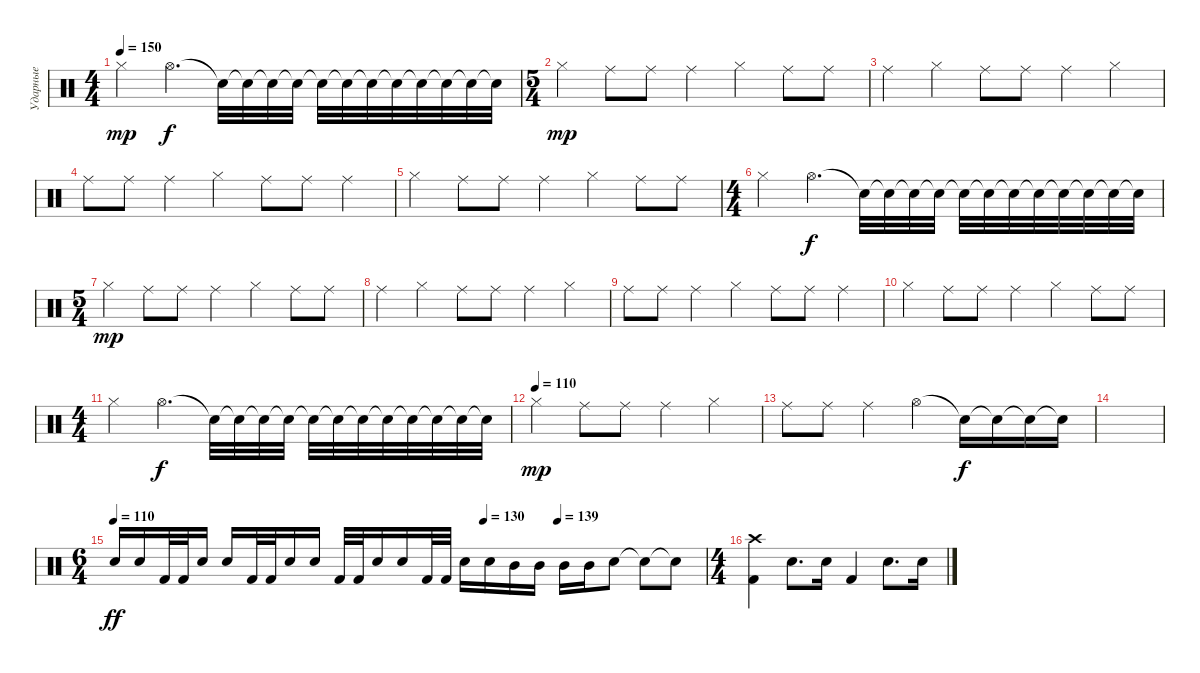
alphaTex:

\track ("Ударные" "Ударные") {instrument percussion}
\staff {score}
\articulation defaults
\ts (4 4)
\tempo 150
\clef neutral
\ks c "Hi-Hat (closed)".4{dy mp} "Hi-Hat (open)".4{d dy f} "Snare (hit)"{t}.32 "Snare (hit)"{t}.32 "Snare (hit)"{t}.32 "Snare (hit)"{t}.32 "Snare (hit)"{t}.32 "Snare (hit)"{t}.32 "Snare (hit)"{t}.32 "Snare (hit)"{t}.32 "Snare (hit)"{t}.32 "Snare (hit)"{t}.32 "Snare (hit)"{t}.32 "Snare (hit)"{t}.32
|
\ts (5 4)
"Hi-Hat (closed)".4{dy mp} "Ride (middle)".8 "Ride (middle)".8 "Ride (middle)".4 "Hi-Hat (closed)".4 "Ride (middle)".8 "Ride (middle)".8 |
"Ride (middle)".4 "Hi-Hat (closed)".4 "Ride (middle)".8 "Ride (middle)".8 "Ride (middle)".4 "Hi-Hat (closed)".4 |
"Ride (middle)".8 "Ride (middle)".8 "Ride (middle)".4 "Hi-Hat (closed)".4 "Ride (middle)".8 "Ride (middle)".8 "Ride (middle)".4 |
"Hi-Hat (closed)".4 "Ride (middle)".8 "Ride (middle)".8 "Ride (middle)".4 "Hi-Hat (closed)".4 "Ride (middle)".8 "Ride (middle)".8 |
\ts (4 4)
"Hi-Hat (closed)".4 "Hi-Hat (open)".4{d dy f} "Snare (hit)"{t}.32 "Snare (hit)"{t}.32 "Snare (hit)"{t}.32 "Snare (hit)"{t}.32 "Snare (hit)"{t}.32 "Snare (hit)"{t}.32 "Snare (hit)"{t}.32 "Snare (hit)"{t}.32 "Snare (hit)"{t}.32 "Snare (hit)"{t}.32 "Snare (hit)"{t}.32 "Snare (hit)"{t}.32 |
\ts (5 4)
"Hi-Hat (closed)".4{dy mp} "Ride (middle)".8 "Ride (middle)".8 "Ride (middle)".4 "Hi-Hat (closed)".4 "Ride (middle)".8 "Ride (middle)".8 |
"Ride (middle)".4 "Hi-Hat (closed)".4 "Ride (middle)".8 "Ride (middle)".8 "Ride (middle)".4 "Hi-Hat (closed)".4 |
"Ride (middle)".8 "Ride (middle)".8 "Ride (middle)".4 "Hi-Hat (closed)".4 "Ride (middle)".8 "Ride (middle)".8 "Ride (middle)".4 |
"Hi-Hat (closed)".4 "Ride (middle)".8 "Ride (middle)".8 "Ride (middle)".4 "Hi-Hat (closed)".4 "Ride (middle)".8 "Ride (middle)".8 |
\ts (4 4)
"Hi-Hat (closed)".4 "Hi-Hat (open)".4{d dy f} "Snare (hit)"{t}.32 "Snare (hit)"{t}.32 "Snare (hit)"{t}.32 "Snare (hit)"{t}.32 "Snare (hit)"{t}.32 "Snare (hit)"{t}.32 "Snare (hit)"{t}.32 "Snare (hit)"{t}.32 "Snare (hit)"{t}.32 "Snare (hit)"{t}.32 "Snare (hit)"{t}.32 "Snare (hit)"{t}.32 |
\tempo (110)
"Hi-Hat (closed)".4{dy mp} "Ride (middle)".8 "Ride (middle)".8 "Ride (middle)".4 "Hi-Hat (closed)".4 |
"Ride (middle)".8 "Ride (middle)".8 "Ride (middle)".4 "Hi-Hat (open)".4 "Snare (hit)"{t}.16{dy f} "Snare (hit)"{t}.16 "Snare (hit)"{t}.16 "Snare (hit)"{t}.16 |
|
\ts (6 4)
\tempo 110
\tempo (130 0.625)
\tempo (139 0.75)
"Electric Snare (hit)".16{dy ff} "Electric Snare (hit)".16 "Kick (hit) 2".32 "Kick (hit) 2".32 "Electric Snare (hit)".16 "Electric Snare (hit)".16 "Kick (hit) 2".32 "Kick (hit) 2".32 "Electric Snare (hit)".16 "Electric Snare (hit)".16 "Kick (hit) 2".32 "Kick (hit) 2".32 "Electric Snare (hit)".16 "Electric Snare (hit)".16 "Kick (hit) 2".32 "Kick (hit) 2".32 "Electric Snare (hit)".16 "Electric Snare (hit)".16 "Mid Tom (hit)".16 "Mid Tom (hit)".16 "Mid Tom (hit)".16 "Mid Tom (hit)".16 "Electric Snare (hit)".8 "Snare (hit)"{t}.8 "Snare (hit)"{t}.8 |
\ts (4 4)
("Kick (hit) 2" "Crash high (hit)").4 "Electric Snare (hit)".8{d} "Electric Snare (hit)".16 "Kick (hit) 2".4 "Electric Snare (hit)".8{d} "Electric Snare (hit)".16
